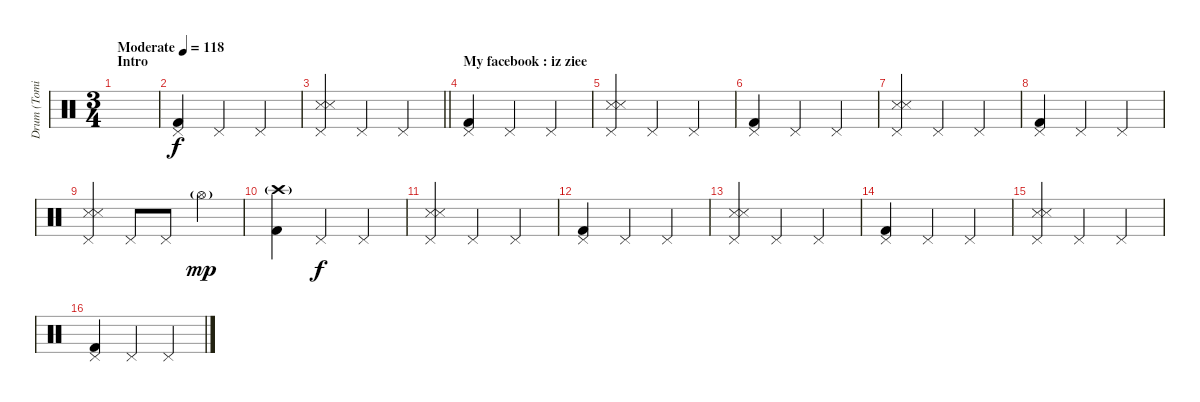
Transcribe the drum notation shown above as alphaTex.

\track ("Drum (Tomi)" "Drum (Tomi") {instrument percussion}
\staff {score}
\articulation defaults
\ts (3 4)
\section ("" "Intro")
\tempo (118 "Moderate")
\clef neutral
\ks c
|
("Pedal Hi-Hat (hit)" "Kick (hit) 2").4 "Pedal Hi-Hat (hit)".4 "Pedal Hi-Hat (hit)".4 |
\barLineRight lightlight
("Snare (side stick) 3" "Pedal Hi-Hat (hit)" "Snare (side stick) 3").4 "Pedal Hi-Hat (hit)".4 "Pedal Hi-Hat (hit)".4 |
\section ("" "My facebook : iz ziee")
("Pedal Hi-Hat (hit)" "Kick (hit) 2").4 "Pedal Hi-Hat (hit)".4 "Pedal Hi-Hat (hit)".4 |
("Snare (side stick) 3" "Pedal Hi-Hat (hit)" "Snare (side stick) 3").4 "Pedal Hi-Hat (hit)".4 "Pedal Hi-Hat (hit)".4 |
("Pedal Hi-Hat (hit)" "Kick (hit) 2").4 "Pedal Hi-Hat (hit)".4 "Pedal Hi-Hat (hit)".4 |
("Snare (side stick) 3" "Pedal Hi-Hat (hit)" "Snare (side stick) 3").4 "Pedal Hi-Hat (hit)".4 "Pedal Hi-Hat (hit)".4 |
("Pedal Hi-Hat (hit)" "Kick (hit) 2").4 "Pedal Hi-Hat (hit)".4 "Pedal Hi-Hat (hit)".4 |
("Snare (side stick) 3" "Pedal Hi-Hat (hit)" "Snare (side stick) 3").4 "Pedal Hi-Hat (hit)".8 "Pedal Hi-Hat (hit)".8 "Hi-Hat (open)"{g}.4{dy mp} |
("Crash high (hit)"{g} "Kick (hit) 2").4 "Pedal Hi-Hat (hit)".4{dy f} "Pedal Hi-Hat (hit)".4 |
("Snare (side stick) 3" "Pedal Hi-Hat (hit)" "Snare (side stick) 3").4 "Pedal Hi-Hat (hit)".4 "Pedal Hi-Hat (hit)".4 |
("Pedal Hi-Hat (hit)" "Kick (hit) 2").4 "Pedal Hi-Hat (hit)".4 "Pedal Hi-Hat (hit)".4 |
("Snare (side stick) 3" "Pedal Hi-Hat (hit)" "Snare (side stick) 3").4 "Pedal Hi-Hat (hit)".4 "Pedal Hi-Hat (hit)".4 |
("Pedal Hi-Hat (hit)" "Kick (hit) 2").4 "Pedal Hi-Hat (hit)".4 "Pedal Hi-Hat (hit)".4 |
("Snare (side stick) 3" "Pedal Hi-Hat (hit)" "Snare (side stick) 3").4 "Pedal Hi-Hat (hit)".4 "Pedal Hi-Hat (hit)".4 |
("Pedal Hi-Hat (hit)" "Kick (hit) 2").4 "Pedal Hi-Hat (hit)".4 "Pedal Hi-Hat (hit)".4
